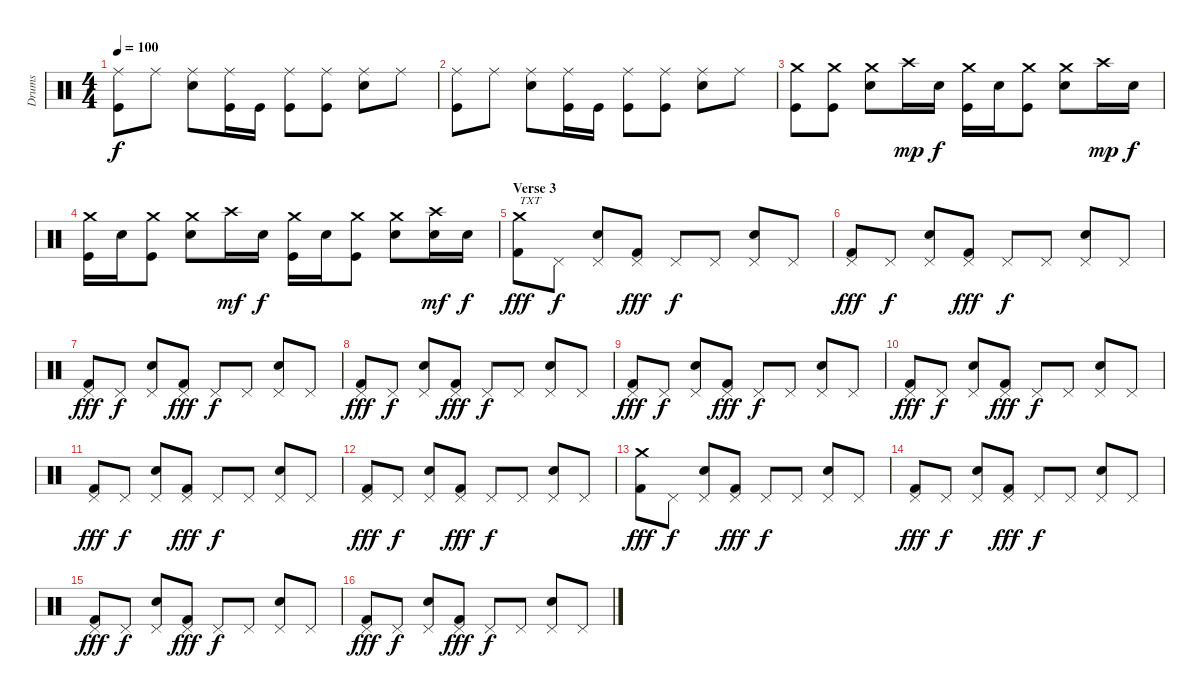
\track ("Drums" "Drums") {instrument percussion}
\staff {score}
\articulation defaults
\ts (4 4)
\tempo 100
\clef neutral
\ks c
("Kick (hit)" "Ride (middle)").8{dy f} "Ride (middle)".8 ("Electric Snare (hit)" "Ride (middle)").8 ("Kick (hit)" "Ride (middle)").16 "Kick (hit)".16 ("Kick (hit)" "Ride (middle)").8 ("Kick (hit)" "Ride (middle)").8 ("Electric Snare (hit)" "Ride (middle)").8 "Ride (middle)".8 |
("Kick (hit)" "Ride (middle)").8 "Ride (middle)".8 ("Electric Snare (hit)" "Ride (middle)").8 ("Kick (hit)" "Ride (middle)").16 "Kick (hit)".16 ("Kick (hit)" "Ride (middle)").8 ("Kick (hit)" "Ride (middle)").8 ("Electric Snare (hit)" "Ride (middle)").8 "Ride (middle)".8 |
("Kick (hit)" "Crash medium (hit)").8 ("Kick (hit)" "Crash medium (hit)").8 ("Electric Snare (hit)" "Crash medium (hit)").8 "Crash high (hit)".16{dy mp} "Electric Snare (hit)".16{dy f} ("Kick (hit)" "Crash medium (hit)").16 "Electric Snare (hit)".16 ("Kick (hit)" "Crash medium (hit)").8 ("Electric Snare (hit)" "Crash medium (hit)").8 "Crash high (hit)".16{dy mp} "Electric Snare (hit)".16{dy f} |
("Kick (hit)" "Crash medium (hit)").16 "Electric Snare (hit)".16 ("Kick (hit)" "Crash medium (hit)").8 ("Electric Snare (hit)" "Crash medium (hit)").8 "Crash high (hit)".16{dy mf} "Electric Snare (hit)".16{dy f} ("Kick (hit)" "Crash medium (hit)").16 "Electric Snare (hit)".16 ("Kick (hit)" "Crash medium (hit)").8 ("Electric Snare (hit)" "Crash medium (hit)").8 ("Electric Snare (hit)" "Crash high (hit)").16{dy mf} "Electric Snare (hit)".16{dy f} |
\section ("" "Verse 3")
("Kick (hit) 2" "Crash medium (hit)").8{txt "TXT" dy fff} "Pedal Hi-Hat (hit)".8{dy f} ("Electric Snare (hit)" "Pedal Hi-Hat (hit)").8 ("Kick (hit) 2" "Pedal Hi-Hat (hit)").8{dy fff} "Pedal Hi-Hat (hit)".8{dy f} "Pedal Hi-Hat (hit)".8 ("Electric Snare (hit)" "Pedal Hi-Hat (hit)").8 "Pedal Hi-Hat (hit)".8 |
("Kick (hit) 2" "Pedal Hi-Hat (hit)").8{dy fff} "Pedal Hi-Hat (hit)".8{dy f} ("Electric Snare (hit)" "Pedal Hi-Hat (hit)").8 ("Kick (hit) 2" "Pedal Hi-Hat (hit)").8{dy fff} "Pedal Hi-Hat (hit)".8{dy f} "Pedal Hi-Hat (hit)".8 ("Electric Snare (hit)" "Pedal Hi-Hat (hit)").8 "Pedal Hi-Hat (hit)".8 |
("Kick (hit) 2" "Pedal Hi-Hat (hit)").8{dy fff} "Pedal Hi-Hat (hit)".8{dy f} ("Electric Snare (hit)" "Pedal Hi-Hat (hit)").8 ("Kick (hit) 2" "Pedal Hi-Hat (hit)").8{dy fff} "Pedal Hi-Hat (hit)".8{dy f} "Pedal Hi-Hat (hit)".8 ("Electric Snare (hit)" "Pedal Hi-Hat (hit)").8 "Pedal Hi-Hat (hit)".8 |
("Kick (hit) 2" "Pedal Hi-Hat (hit)").8{dy fff} "Pedal Hi-Hat (hit)".8{dy f} ("Electric Snare (hit)" "Pedal Hi-Hat (hit)").8 ("Kick (hit) 2" "Pedal Hi-Hat (hit)").8{dy fff} "Pedal Hi-Hat (hit)".8{dy f} "Pedal Hi-Hat (hit)".8 ("Electric Snare (hit)" "Pedal Hi-Hat (hit)").8 "Pedal Hi-Hat (hit)".8 |
("Kick (hit) 2" "Pedal Hi-Hat (hit)").8{dy fff} "Pedal Hi-Hat (hit)".8{dy f} ("Electric Snare (hit)" "Pedal Hi-Hat (hit)").8 ("Kick (hit) 2" "Pedal Hi-Hat (hit)").8{dy fff} "Pedal Hi-Hat (hit)".8{dy f} "Pedal Hi-Hat (hit)".8 ("Electric Snare (hit)" "Pedal Hi-Hat (hit)").8 "Pedal Hi-Hat (hit)".8 |
("Kick (hit) 2" "Pedal Hi-Hat (hit)").8{dy fff} "Pedal Hi-Hat (hit)".8{dy f} ("Electric Snare (hit)" "Pedal Hi-Hat (hit)").8 ("Kick (hit) 2" "Pedal Hi-Hat (hit)").8{dy fff} "Pedal Hi-Hat (hit)".8{dy f} "Pedal Hi-Hat (hit)".8 ("Electric Snare (hit)" "Pedal Hi-Hat (hit)").8 "Pedal Hi-Hat (hit)".8 |
("Kick (hit) 2" "Pedal Hi-Hat (hit)").8{dy fff} "Pedal Hi-Hat (hit)".8{dy f} ("Electric Snare (hit)" "Pedal Hi-Hat (hit)").8 ("Kick (hit) 2" "Pedal Hi-Hat (hit)").8{dy fff} "Pedal Hi-Hat (hit)".8{dy f} "Pedal Hi-Hat (hit)".8 ("Electric Snare (hit)" "Pedal Hi-Hat (hit)").8 "Pedal Hi-Hat (hit)".8 |
("Kick (hit) 2" "Pedal Hi-Hat (hit)").8{dy fff} "Pedal Hi-Hat (hit)".8{dy f} ("Electric Snare (hit)" "Pedal Hi-Hat (hit)").8 ("Kick (hit) 2" "Pedal Hi-Hat (hit)").8{dy fff} "Pedal Hi-Hat (hit)".8{dy f} "Pedal Hi-Hat (hit)".8 ("Electric Snare (hit)" "Pedal Hi-Hat (hit)").8 "Pedal Hi-Hat (hit)".8 |
("Kick (hit) 2" "Crash medium (hit)").8{dy fff} "Pedal Hi-Hat (hit)".8{dy f} ("Electric Snare (hit)" "Pedal Hi-Hat (hit)").8 ("Kick (hit) 2" "Pedal Hi-Hat (hit)").8{dy fff} "Pedal Hi-Hat (hit)".8{dy f} "Pedal Hi-Hat (hit)".8 ("Electric Snare (hit)" "Pedal Hi-Hat (hit)").8 "Pedal Hi-Hat (hit)".8 |
("Kick (hit) 2" "Pedal Hi-Hat (hit)").8{dy fff} "Pedal Hi-Hat (hit)".8{dy f} ("Electric Snare (hit)" "Pedal Hi-Hat (hit)").8 ("Kick (hit) 2" "Pedal Hi-Hat (hit)").8{dy fff} "Pedal Hi-Hat (hit)".8{dy f} "Pedal Hi-Hat (hit)".8 ("Electric Snare (hit)" "Pedal Hi-Hat (hit)").8 "Pedal Hi-Hat (hit)".8 |
("Kick (hit) 2" "Pedal Hi-Hat (hit)").8{dy fff} "Pedal Hi-Hat (hit)".8{dy f} ("Electric Snare (hit)" "Pedal Hi-Hat (hit)").8 ("Kick (hit) 2" "Pedal Hi-Hat (hit)").8{dy fff} "Pedal Hi-Hat (hit)".8{dy f} "Pedal Hi-Hat (hit)".8 ("Electric Snare (hit)" "Pedal Hi-Hat (hit)").8 "Pedal Hi-Hat (hit)".8 |
("Kick (hit) 2" "Pedal Hi-Hat (hit)").8{dy fff} "Pedal Hi-Hat (hit)".8{dy f} ("Electric Snare (hit)" "Pedal Hi-Hat (hit)").8 ("Kick (hit) 2" "Pedal Hi-Hat (hit)").8{dy fff} "Pedal Hi-Hat (hit)".8{dy f} "Pedal Hi-Hat (hit)".8 ("Electric Snare (hit)" "Pedal Hi-Hat (hit)").8 "Pedal Hi-Hat (hit)".8
